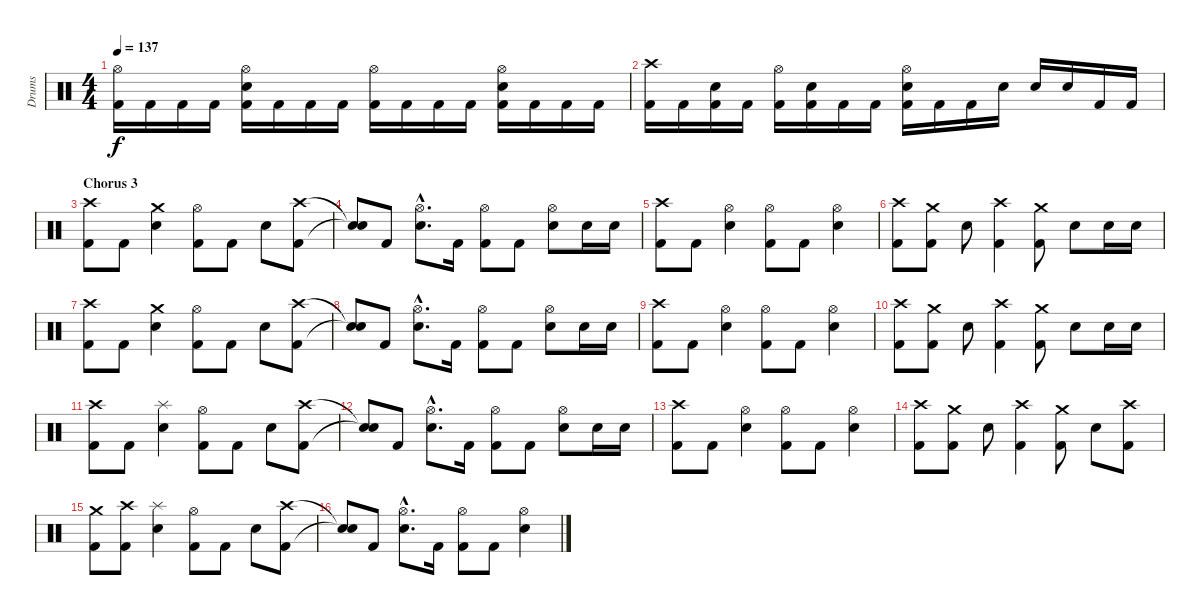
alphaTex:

\track ("Drums" "Drums") {instrument percussion}
\staff {score}
\articulation defaults
\ts (4 4)
\tempo 137
\clef neutral
\ks c
("Hi-Hat (open)" "Kick (hit) 2").16{dy f} "Kick (hit) 2".16 "Kick (hit) 2".16 "Kick (hit) 2".16 ("Hi-Hat (open)" "Snare (hit) 2" "Kick (hit) 2").16 "Kick (hit) 2".16 "Kick (hit) 2".16 "Kick (hit) 2".16 ("Hi-Hat (open)" "Kick (hit) 2").16 "Kick (hit) 2".16 "Kick (hit) 2".16 "Kick (hit) 2".16 ("Hi-Hat (open)" "Snare (hit) 2" "Kick (hit) 2").16 "Kick (hit) 2".16 "Kick (hit) 2".16 "Kick (hit) 2".16 |
("Crash high (hit)" "Kick (hit) 2").16 "Kick (hit) 2".16 ("Snare (hit) 2" "Kick (hit) 2").16 "Kick (hit) 2".16 ("Hi-Hat (open)" "Kick (hit) 2").16 ("Snare (hit) 2" "Kick (hit) 2").16 "Kick (hit) 2".16 "Kick (hit) 2".16 ("Hi-Hat (open)" "Snare (hit) 2" "Kick (hit) 2").16 "Kick (hit) 2".16 "Kick (hit) 2".16 "Snare (hit) 2".16 "Snare (hit) 2".16 "Snare (hit) 2".16 "Kick (hit) 2".16 "Kick (hit) 2".16 |
\section ("" "Chorus 3")
("Crash high (hit)" "Kick (hit) 2").8 "Kick (hit) 2".8 ("Crash medium (hit)" "Snare (hit) 2").4 ("Hi-Hat (open)" "Kick (hit) 2").8 "Kick (hit) 2".8 "Snare (hit) 2".8 ("Crash high (hit)" "Kick (hit) 2").8 |
("Snare (hit)"{t} "Snare (hit)"{t}).8 "Kick (hit) 2".8 ("Hi-Hat (open)"{hac} "Snare (hit) 2"{hac}).8{d} "Kick (hit) 2".16 ("Hi-Hat (open)" "Kick (hit) 2").8 "Kick (hit) 2".8 ("Hi-Hat (open)" "Snare (hit) 2").8 "Snare (hit) 2".16 "Snare (hit) 2".16 |
("Crash high (hit)" "Kick (hit) 2").8 "Kick (hit) 2".8 ("Hi-Hat (open)" "Snare (hit) 2").4 ("Hi-Hat (open)" "Kick (hit) 2").8 "Kick (hit) 2".8 ("Hi-Hat (open)" "Snare (hit) 2").4 |
("Crash high (hit)" "Kick (hit) 2").8 ("Crash medium (hit)" "Kick (hit) 2").8 "Snare (hit) 2".8 ("Crash high (hit)" "Kick (hit) 2").4 ("Crash medium (hit)" "Kick (hit) 2").8 "Snare (hit) 2".8 "Snare (hit) 2".16 "Snare (hit) 2".16 |
("Crash high (hit)" "Kick (hit) 2").8 "Kick (hit) 2".8 ("Crash medium (hit)" "Snare (hit) 2").4 ("Hi-Hat (open)" "Kick (hit) 2").8 "Kick (hit) 2".8 "Snare (hit) 2".8 ("Crash high (hit)" "Kick (hit) 2").8 |
("Snare (hit)"{t} "Snare (hit)"{t}).8 "Kick (hit) 2".8 ("Hi-Hat (open)"{hac} "Snare (hit) 2"{hac}).8{d} "Kick (hit) 2".16 ("Hi-Hat (open)" "Kick (hit) 2").8 "Kick (hit) 2".8 ("Hi-Hat (open)" "Snare (hit) 2").8 "Snare (hit) 2".16 "Snare (hit) 2".16 |
("Crash high (hit)" "Kick (hit) 2").8 "Kick (hit) 2".8 ("Hi-Hat (open)" "Snare (hit) 2").4 ("Hi-Hat (open)" "Kick (hit) 2").8 "Kick (hit) 2".8 ("Hi-Hat (open)" "Snare (hit) 2").4 |
("Crash high (hit)" "Kick (hit) 2").8 ("Crash medium (hit)" "Kick (hit) 2").8 "Snare (hit) 2".8 ("Crash high (hit)" "Kick (hit) 2").4 ("Crash medium (hit)" "Kick (hit) 2").8 "Snare (hit) 2".8 "Snare (hit) 2".16 "Snare (hit) 2".16 |
("Crash high (hit)" "Kick (hit) 2").8 "Kick (hit) 2".8 ("Splash (hit)" "Snare (hit) 2").4 ("Hi-Hat (open)" "Kick (hit) 2").8 "Kick (hit) 2".8 "Snare (hit) 2".8 ("Crash high (hit)" "Kick (hit) 2").8 |
("Snare (hit)"{t} "Snare (hit)"{t}).8 "Kick (hit) 2".8 ("Hi-Hat (open)"{hac} "Snare (hit) 2"{hac}).8{d} "Kick (hit) 2".16 ("Hi-Hat (open)" "Kick (hit) 2").8 "Kick (hit) 2".8 ("Hi-Hat (open)" "Snare (hit) 2").8 "Snare (hit) 2".16 "Snare (hit) 2".16 |
("Crash high (hit)" "Kick (hit) 2").8 "Kick (hit) 2".8 ("Hi-Hat (open)" "Snare (hit) 2").4 ("Hi-Hat (open)" "Kick (hit) 2").8 "Kick (hit) 2".8 ("Hi-Hat (open)" "Snare (hit) 2").4 |
("Crash high (hit)" "Kick (hit) 2").8 ("Crash medium (hit)" "Kick (hit) 2").8 "Snare (hit) 2".8 ("Crash high (hit)" "Kick (hit) 2").4 ("Crash medium (hit)" "Kick (hit) 2").8 "Snare (hit) 2".8 ("Crash high (hit)" "Kick (hit) 2").8 |
("Crash medium (hit)" "Kick (hit) 2").8 ("Crash high (hit)" "Kick (hit) 2").8 ("Splash (hit)" "Snare (hit) 2").4 ("Hi-Hat (open)" "Kick (hit) 2").8 "Kick (hit) 2".8 "Snare (hit) 2".8 ("Crash high (hit)" "Kick (hit) 2").8 |
("Snare (hit)"{t} "Snare (hit)"{t}).8 "Kick (hit) 2".8 ("Hi-Hat (open)"{hac} "Snare (hit) 2"{hac}).8{d} "Kick (hit) 2".16 ("Hi-Hat (open)" "Kick (hit) 2").8 "Kick (hit) 2".8 ("Hi-Hat (open)" "Snare (hit) 2").4
